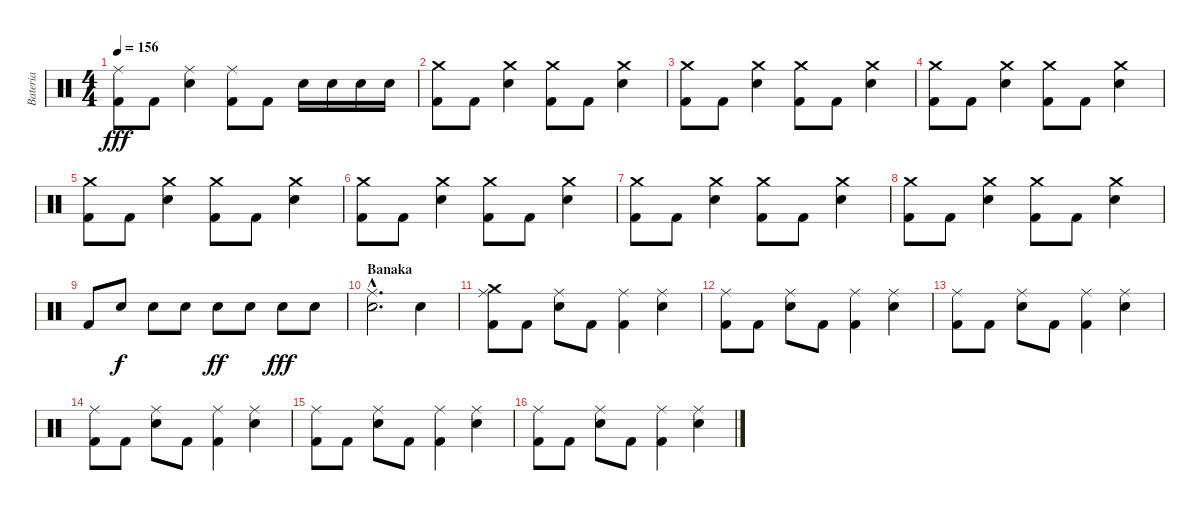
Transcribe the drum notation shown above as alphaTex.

\track ("Bateria" "Bateria") {instrument percussion}
\staff {score}
\articulation defaults
\ts (4 4)
\tempo 156
\clef neutral
\ks c
("Ride (middle)" "Kick (hit) 2").8{dy fff} "Kick (hit) 2".8 ("Ride (middle)" "Electric Snare (hit)").4 ("Ride (middle)" "Kick (hit) 2").8 "Kick (hit) 2".8 "Electric Snare (hit)".16 "Electric Snare (hit)".16 "Electric Snare (hit)".16 "Electric Snare (hit)".16 |
("Kick (hit) 2" "Crash medium (hit)").8 "Kick (hit) 2".8 ("Electric Snare (hit)" "Crash medium (hit)").4 ("Kick (hit) 2" "Crash medium (hit)").8 "Kick (hit) 2".8 ("Electric Snare (hit)" "Crash medium (hit)").4 |
("Kick (hit) 2" "Crash medium (hit)").8 "Kick (hit) 2".8 ("Electric Snare (hit)" "Crash medium (hit)").4 ("Kick (hit) 2" "Crash medium (hit)").8 "Kick (hit) 2".8 ("Electric Snare (hit)" "Crash medium (hit)").4 |
("Kick (hit) 2" "Crash medium (hit)").8 "Kick (hit) 2".8 ("Electric Snare (hit)" "Crash medium (hit)").4 ("Kick (hit) 2" "Crash medium (hit)").8 "Kick (hit) 2".8 ("Electric Snare (hit)" "Crash medium (hit)").4 |
("Kick (hit) 2" "Crash medium (hit)").8 "Kick (hit) 2".8 ("Electric Snare (hit)" "Crash medium (hit)").4 ("Kick (hit) 2" "Crash medium (hit)").8 "Kick (hit) 2".8 ("Electric Snare (hit)" "Crash medium (hit)").4 |
("Kick (hit) 2" "Crash medium (hit)").8 "Kick (hit) 2".8 ("Electric Snare (hit)" "Crash medium (hit)").4 ("Kick (hit) 2" "Crash medium (hit)").8 "Kick (hit) 2".8 ("Electric Snare (hit)" "Crash medium (hit)").4 |
("Kick (hit) 2" "Crash medium (hit)").8 "Kick (hit) 2".8 ("Electric Snare (hit)" "Crash medium (hit)").4 ("Kick (hit) 2" "Crash medium (hit)").8 "Kick (hit) 2".8 ("Electric Snare (hit)" "Crash medium (hit)").4 |
("Kick (hit) 2" "Crash medium (hit)").8 "Kick (hit) 2".8 ("Electric Snare (hit)" "Crash medium (hit)").4 ("Kick (hit) 2" "Crash medium (hit)").8 "Kick (hit) 2".8 ("Electric Snare (hit)" "Crash medium (hit)").4 |
"Kick (hit) 2".8 "Electric Snare (hit)".8{dy f} "Electric Snare (hit)".8 "Electric Snare (hit)".8 "Electric Snare (hit)".8{dy ff} "Electric Snare (hit)".8 "Electric Snare (hit)".8{dy fff} "Electric Snare (hit)".8 |
\section ("" "Banaka")
("Ride (middle)"{hac} "Electric Snare (hit)"{hac}).2{d} "Electric Snare (hit)".4 |
("Ride (middle)" "Kick (hit) 2" "Crash medium (hit)").8 "Kick (hit) 2".8 ("Ride (middle)" "Electric Snare (hit)").8 "Kick (hit) 2".8 ("Ride (middle)" "Kick (hit) 2").4 ("Ride (middle)" "Electric Snare (hit)").4 |
("Ride (middle)" "Kick (hit) 2").8 "Kick (hit) 2".8 ("Ride (middle)" "Electric Snare (hit)").8 "Kick (hit) 2".8 ("Ride (middle)" "Kick (hit) 2").4 ("Ride (middle)" "Electric Snare (hit)").4 |
("Ride (middle)" "Kick (hit) 2").8 "Kick (hit) 2".8 ("Ride (middle)" "Electric Snare (hit)").8 "Kick (hit) 2".8 ("Ride (middle)" "Kick (hit) 2").4 ("Ride (middle)" "Electric Snare (hit)").4 |
("Ride (middle)" "Kick (hit) 2").8 "Kick (hit) 2".8 ("Ride (middle)" "Electric Snare (hit)").8 "Kick (hit) 2".8 ("Ride (middle)" "Kick (hit) 2").4 ("Ride (middle)" "Electric Snare (hit)").4 |
("Ride (middle)" "Kick (hit) 2").8 "Kick (hit) 2".8 ("Ride (middle)" "Electric Snare (hit)").8 "Kick (hit) 2".8 ("Ride (middle)" "Kick (hit) 2").4 ("Ride (middle)" "Electric Snare (hit)").4 |
("Ride (middle)" "Kick (hit) 2").8 "Kick (hit) 2".8 ("Ride (middle)" "Electric Snare (hit)").8 "Kick (hit) 2".8 ("Ride (middle)" "Kick (hit) 2").4 ("Ride (middle)" "Electric Snare (hit)").4
